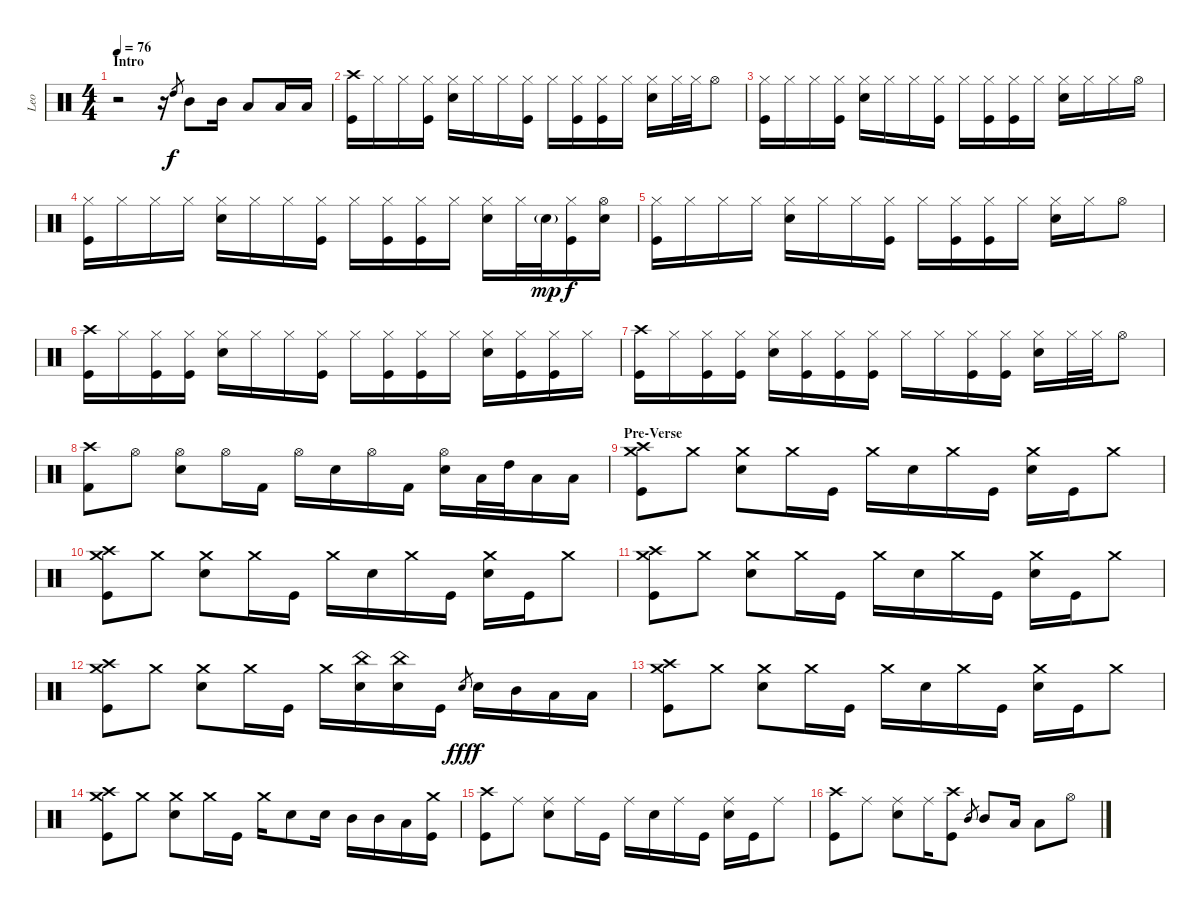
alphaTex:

\track ("Leo" "Leo") {instrument percussion}
\staff {score}
\articulation defaults
\ts (4 4)
\section ("" "Intro")
\tempo 76
\clef neutral
\ks c
r.2{dy f} r.16 "High Tom (hit)".8{gr} "Mid Tom (hit)".8 "Mid Tom (hit)".16 "Low Tom (hit)".8 "Low Tom (hit)".16 "Low Tom (hit)".16 |
("Crash high (hit)" "Kick (hit)").16 "Hi-Hat (closed)".16 "Hi-Hat (closed)".16 ("Hi-Hat (closed)" "Kick (hit)").16 ("Hi-Hat (closed)" "Electric Snare (hit)").16 "Hi-Hat (closed)".16 "Hi-Hat (closed)".16 ("Hi-Hat (closed)" "Kick (hit)").16 "Hi-Hat (closed)".16 ("Hi-Hat (closed)" "Kick (hit)").16 ("Hi-Hat (closed)" "Kick (hit)").16 "Hi-Hat (closed)".16 ("Hi-Hat (closed)" "Electric Snare (hit)").16 "Hi-Hat (closed)".32 "Hi-Hat (closed)".32 "Hi-Hat (open)".8 |
("Hi-Hat (closed)" "Kick (hit)").16 "Hi-Hat (closed)".16 "Hi-Hat (closed)".16 ("Hi-Hat (closed)" "Kick (hit)").16 ("Hi-Hat (closed)" "Electric Snare (hit)").16 "Hi-Hat (closed)".16 "Hi-Hat (closed)".16 ("Hi-Hat (closed)" "Kick (hit)").16 "Hi-Hat (closed)".16 ("Hi-Hat (closed)" "Kick (hit)").16 ("Hi-Hat (closed)" "Kick (hit)").16 "Hi-Hat (closed)".16 ("Hi-Hat (closed)" "Electric Snare (hit)").16 "Hi-Hat (closed)".16 "Hi-Hat (closed)".16 "Hi-Hat (open)".16 |
("Hi-Hat (closed)" "Kick (hit)").16 "Hi-Hat (closed)".16 "Hi-Hat (closed)".16 "Hi-Hat (closed)".16 ("Hi-Hat (closed)" "Electric Snare (hit)").16 "Hi-Hat (closed)".16 "Hi-Hat (closed)".16 ("Hi-Hat (closed)" "Kick (hit)").16 "Hi-Hat (closed)".16 ("Hi-Hat (closed)" "Kick (hit)").16 ("Hi-Hat (closed)" "Kick (hit)").16 "Hi-Hat (closed)".16 ("Hi-Hat (closed)" "Electric Snare (hit)").16 "Hi-Hat (closed)".32 "Electric Snare (hit)"{g}.32{dy mp} ("Hi-Hat (closed)" "Kick (hit)").16{dy f} ("Hi-Hat (open)" "Electric Snare (hit)").16 |
("Hi-Hat (closed)" "Kick (hit)").16 "Hi-Hat (closed)".16 "Hi-Hat (closed)".16 "Hi-Hat (closed)".16 ("Hi-Hat (closed)" "Electric Snare (hit)").16 "Hi-Hat (closed)".16 "Hi-Hat (closed)".16 ("Hi-Hat (closed)" "Kick (hit)").16 "Hi-Hat (closed)".16 ("Hi-Hat (closed)" "Kick (hit)").16 ("Hi-Hat (closed)" "Kick (hit)").16 "Hi-Hat (closed)".16 ("Hi-Hat (closed)" "Electric Snare (hit)").16 "Hi-Hat (closed)".16 "Hi-Hat (open)".8 |
("Crash high (hit)" "Kick (hit)").16 "Hi-Hat (closed)".16 ("Hi-Hat (closed)" "Kick (hit)").16 ("Hi-Hat (closed)" "Kick (hit)").16 ("Hi-Hat (closed)" "Electric Snare (hit)").16 "Hi-Hat (closed)".16 "Hi-Hat (closed)".16 ("Hi-Hat (closed)" "Kick (hit)").16 "Hi-Hat (closed)".16 ("Hi-Hat (closed)" "Kick (hit)").16 ("Hi-Hat (closed)" "Kick (hit)").16 "Hi-Hat (closed)".16 ("Hi-Hat (closed)" "Electric Snare (hit)").16 ("Hi-Hat (closed)" "Kick (hit)").16 ("Hi-Hat (closed)" "Kick (hit)").16 "Hi-Hat (closed)".16 |
("Crash high (hit)" "Kick (hit)").16 "Hi-Hat (closed)".16 ("Hi-Hat (closed)" "Kick (hit)").16 ("Hi-Hat (closed)" "Kick (hit)").16 ("Hi-Hat (closed)" "Electric Snare (hit)").16 ("Hi-Hat (closed)" "Kick (hit)").16 ("Hi-Hat (closed)" "Kick (hit)").16 ("Hi-Hat (closed)" "Kick (hit)").16 "Hi-Hat (closed)".16 "Hi-Hat (closed)".16 ("Hi-Hat (closed)" "Kick (hit)").16 ("Hi-Hat (closed)" "Kick (hit)").16 ("Hi-Hat (closed)" "Electric Snare (hit)").16 "Hi-Hat (closed)".32 "Hi-Hat (closed)".32 "Hi-Hat (open)".8 |
("Crash high (hit)" "Kick (hit) 2").8 "Hi-Hat (open)".8 ("Hi-Hat (open)" "Electric Snare (hit)").8 "Hi-Hat (open)".16 "Kick (hit) 2".16 "Hi-Hat (open)".16 "Electric Snare (hit)".16 "Hi-Hat (open)".16 "Kick (hit) 2".16 ("Hi-Hat (open)" "Electric Snare (hit)").16 "Low Tom (hit)".32 "High Tom (hit)".32 "Low Tom (hit)".16 "Low Tom (hit)".16 |
\section ("" "Pre-Verse")
("Crash high (hit)" "Crash medium (hit)" "Kick (hit)").8 "Crash medium (hit)".8 ("Crash medium (hit)" "Electric Snare (hit)").8 "Crash medium (hit)".16 "Kick (hit)".16 "Crash medium (hit)".16 "Electric Snare (hit)".16 "Crash medium (hit)".16 "Kick (hit)".16 ("Crash medium (hit)" "Electric Snare (hit)").16 "Kick (hit)".16 "Crash medium (hit)".8 |
("Crash high (hit)" "Crash medium (hit)" "Kick (hit)").8 "Crash medium (hit)".8 ("Crash medium (hit)" "Electric Snare (hit)").8 "Crash medium (hit)".16 "Kick (hit)".16 "Crash medium (hit)".16 "Electric Snare (hit)".16 "Crash medium (hit)".16 "Kick (hit)".16 ("Crash medium (hit)" "Electric Snare (hit)").16 "Kick (hit)".16 "Crash medium (hit)".8 |
("Crash high (hit)" "Crash medium (hit)" "Kick (hit)").8 "Crash medium (hit)".8 ("Crash medium (hit)" "Electric Snare (hit)").8 "Crash medium (hit)".16 "Kick (hit)".16 "Crash medium (hit)".16 "Electric Snare (hit)".16 "Crash medium (hit)".16 "Kick (hit)".16 ("Crash medium (hit)" "Electric Snare (hit)").16 "Kick (hit)".16 "Crash medium (hit)".8 |
("Crash high (hit)" "Crash medium (hit)" "Kick (hit)").8 "Crash medium (hit)".8 ("Crash medium (hit)" "Electric Snare (hit)").8 "Crash medium (hit)".16 "Kick (hit)".16 "Crash medium (hit)".16 ("China (hit)" "Electric Snare (hit)").16 ("China (hit)" "Electric Snare (hit)").16 "Kick (hit)".16 "Electric Snare (hit)".8{gr dy fff} "Electric Snare (hit)".16{dy f} "Mid Tom (hit)".16 "Low Tom (hit)".16 "Low Tom (hit)".16 |
("Crash high (hit)" "Crash medium (hit)" "Kick (hit)").8 "Crash medium (hit)".8 ("Crash medium (hit)" "Electric Snare (hit)").8 "Crash medium (hit)".16 "Kick (hit)".16 "Crash medium (hit)".16 "Electric Snare (hit)".16 "Crash medium (hit)".16 "Kick (hit)".16 ("Crash medium (hit)" "Electric Snare (hit)").16 "Kick (hit)".16 "Crash medium (hit)".8 |
("Crash high (hit)" "Crash medium (hit)" "Kick (hit)").8 "Crash medium (hit)".8 ("Crash medium (hit)" "Electric Snare (hit)").8 "Crash medium (hit)".16 "Kick (hit)".16 "Crash medium (hit)".16 "Electric Snare (hit)".8 "Electric Snare (hit)".16 "Mid Tom (hit)".16 "Mid Tom (hit)".16 "Low Tom (hit)".16 ("Crash medium (hit)" "Kick (hit)").16 |
("Crash high (hit)" "Kick (hit)").8 "Ride (middle)".8 ("Ride (middle)" "Electric Snare (hit)").8 "Ride (middle)".16 "Kick (hit)".16 "Ride (middle)".16 "Electric Snare (hit)".16 "Ride (middle)".16 "Kick (hit)".16 ("Ride (middle)" "Electric Snare (hit)").16 "Kick (hit)".16 "Ride (middle)".8 |
("Crash high (hit)" "Kick (hit)").8 "Ride (middle)".8 ("Ride (middle)" "Electric Snare (hit)").8 "Ride (middle)".16 ("Crash high (hit)" "Kick (hit)").8 "Mid Tom (hit)".8{gr} "Mid Tom (hit)".8 "Low Tom (hit)".16 "Low Tom (hit)".8 "Hi-Hat (open)".8
